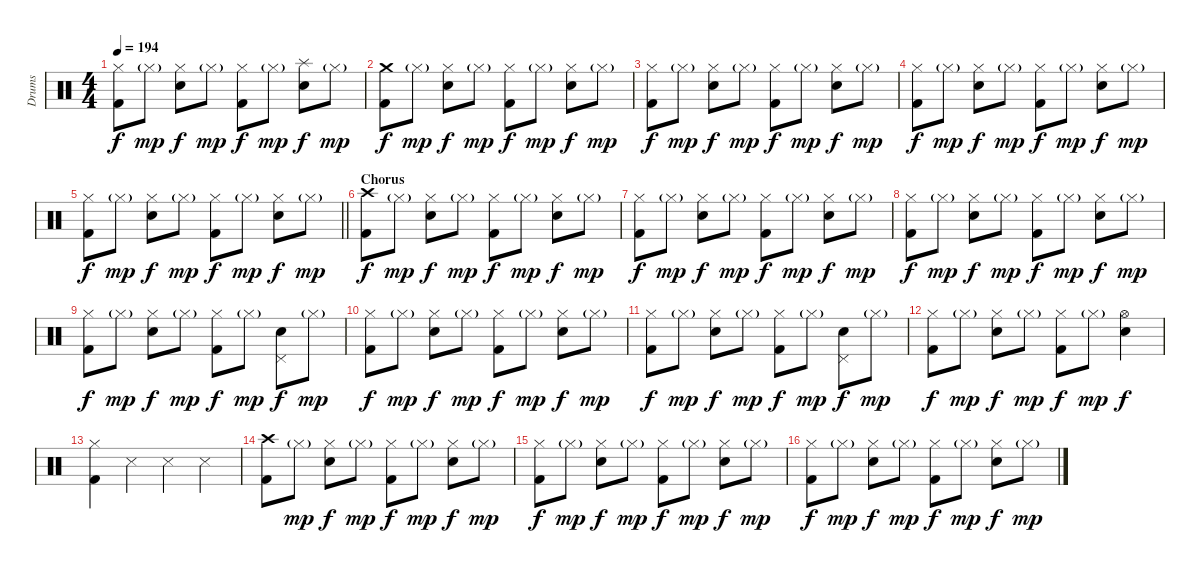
\track ("Drums" "Drums") {instrument percussion}
\staff {score}
\articulation defaults
\ts (4 4)
\tempo 194
\clef neutral
\ks c
("Hi-Hat (closed)" "Kick (hit) 2").8{dy f} "Hi-Hat (closed)"{g}.8{dy mp} ("Hi-Hat (closed)" "Snare (hit) 2").8{dy f} "Hi-Hat (closed)"{g}.8{dy mp} ("Hi-Hat (closed)" "Kick (hit) 2").8{dy f} "Hi-Hat (closed)"{g}.8{dy mp} ("Splash (hit)" "Snare (hit) 2").8{dy f} "Hi-Hat (closed)"{g}.8{dy mp} |
("Crash medium (hit)" "Kick (hit) 2").8{dy f} "Hi-Hat (closed)"{g}.8{dy mp} ("Hi-Hat (closed)" "Snare (hit) 2").8{dy f} "Hi-Hat (closed)"{g}.8{dy mp} ("Hi-Hat (closed)" "Kick (hit) 2").8{dy f} "Hi-Hat (closed)"{g}.8{dy mp} ("Hi-Hat (closed)" "Snare (hit) 2").8{dy f} "Hi-Hat (closed)"{g}.8{dy mp} |
("Hi-Hat (closed)" "Kick (hit) 2").8{dy f} "Hi-Hat (closed)"{g}.8{dy mp} ("Hi-Hat (closed)" "Snare (hit) 2").8{dy f} "Hi-Hat (closed)"{g}.8{dy mp} ("Hi-Hat (closed)" "Kick (hit) 2").8{dy f} "Hi-Hat (closed)"{g}.8{dy mp} ("Hi-Hat (closed)" "Snare (hit) 2").8{dy f} "Hi-Hat (closed)"{g}.8{dy mp} |
("Hi-Hat (closed)" "Kick (hit) 2").8{dy f} "Hi-Hat (closed)"{g}.8{dy mp} ("Hi-Hat (closed)" "Snare (hit) 2").8{dy f} "Hi-Hat (closed)"{g}.8{dy mp} ("Hi-Hat (closed)" "Kick (hit) 2").8{dy f} "Hi-Hat (closed)"{g}.8{dy mp} ("Hi-Hat (closed)" "Snare (hit) 2").8{dy f} "Hi-Hat (closed)"{g}.8{dy mp} |
\barLineRight lightlight
("Hi-Hat (closed)" "Kick (hit) 2").8{dy f} "Hi-Hat (closed)"{g}.8{dy mp} ("Hi-Hat (closed)" "Snare (hit) 2").8{dy f} "Hi-Hat (closed)"{g}.8{dy mp} ("Hi-Hat (closed)" "Kick (hit) 2").8{dy f} "Hi-Hat (closed)"{g}.8{dy mp} ("Hi-Hat (closed)" "Snare (hit) 2").8{dy f} "Hi-Hat (closed)"{g}.8{dy mp} |
\section ("" "Chorus")
("Crash high (hit)" "Kick (hit) 2").8{dy f} "Hi-Hat (closed)"{g}.8{dy mp} ("Hi-Hat (closed)" "Snare (hit) 2").8{dy f} "Hi-Hat (closed)"{g}.8{dy mp} ("Hi-Hat (closed)" "Kick (hit) 2").8{dy f} "Hi-Hat (closed)"{g}.8{dy mp} ("Hi-Hat (closed)" "Snare (hit) 2").8{dy f} "Hi-Hat (closed)"{g}.8{dy mp} |
("Hi-Hat (closed)" "Kick (hit) 2").8{dy f} "Hi-Hat (closed)"{g}.8{dy mp} ("Hi-Hat (closed)" "Snare (hit) 2").8{dy f} "Hi-Hat (closed)"{g}.8{dy mp} ("Hi-Hat (closed)" "Kick (hit) 2").8{dy f} "Hi-Hat (closed)"{g}.8{dy mp} ("Hi-Hat (closed)" "Snare (hit) 2").8{dy f} "Hi-Hat (closed)"{g}.8{dy mp} |
("Hi-Hat (closed)" "Kick (hit) 2").8{dy f} "Hi-Hat (closed)"{g}.8{dy mp} ("Hi-Hat (closed)" "Snare (hit) 2").8{dy f} "Hi-Hat (closed)"{g}.8{dy mp} ("Hi-Hat (closed)" "Kick (hit) 2").8{dy f} "Hi-Hat (closed)"{g}.8{dy mp} ("Hi-Hat (closed)" "Snare (hit) 2").8{dy f} "Hi-Hat (closed)"{g}.8{dy mp} |
("Hi-Hat (closed)" "Kick (hit) 2").8{dy f} "Hi-Hat (closed)"{g}.8{dy mp} ("Hi-Hat (closed)" "Snare (hit) 2").8{dy f} "Hi-Hat (closed)"{g}.8{dy mp} ("Hi-Hat (closed)" "Kick (hit) 2").8{dy f} "Hi-Hat (closed)"{g}.8{dy mp} ("Pedal Hi-Hat (hit)" "Snare (hit) 2").8{dy f} "Hi-Hat (closed)"{g}.8{dy mp} |
("Hi-Hat (closed)" "Kick (hit) 2").8{dy f} "Hi-Hat (closed)"{g}.8{dy mp} ("Hi-Hat (closed)" "Snare (hit) 2").8{dy f} "Hi-Hat (closed)"{g}.8{dy mp} ("Hi-Hat (closed)" "Kick (hit) 2").8{dy f} "Hi-Hat (closed)"{g}.8{dy mp} ("Hi-Hat (closed)" "Snare (hit) 2").8{dy f} "Hi-Hat (closed)"{g}.8{dy mp} |
("Hi-Hat (closed)" "Kick (hit) 2").8{dy f} "Hi-Hat (closed)"{g}.8{dy mp} ("Hi-Hat (closed)" "Snare (hit) 2").8{dy f} "Hi-Hat (closed)"{g}.8{dy mp} ("Hi-Hat (closed)" "Kick (hit) 2").8{dy f} "Hi-Hat (closed)"{g}.8{dy mp} ("Pedal Hi-Hat (hit)" "Snare (hit) 2").8{dy f} "Hi-Hat (closed)"{g}.8{dy mp} |
("Hi-Hat (closed)" "Kick (hit) 2").8{dy f} "Hi-Hat (closed)"{g}.8{dy mp} ("Hi-Hat (closed)" "Snare (hit) 2").8{dy f} "Hi-Hat (closed)"{g}.8{dy mp} ("Hi-Hat (closed)" "Kick (hit) 2").8{dy f} "Hi-Hat (closed)"{g}.8{dy mp} ("Hi-Hat (open)" "Snare (hit) 2").4{dy f} |
("Hi-Hat (closed)" "Kick (hit) 2").4 "Snare (side stick) 3".4 "Snare (side stick) 3".4 "Snare (side stick) 3".4 |
("Crash high (hit)" "Kick (hit) 2").8 "Hi-Hat (closed)"{g}.8{dy mp} ("Hi-Hat (closed)" "Snare (hit) 2").8{dy f} "Hi-Hat (closed)"{g}.8{dy mp} ("Hi-Hat (closed)" "Kick (hit) 2").8{dy f} "Hi-Hat (closed)"{g}.8{dy mp} ("Hi-Hat (closed)" "Snare (hit) 2").8{dy f} "Hi-Hat (closed)"{g}.8{dy mp} |
("Hi-Hat (closed)" "Kick (hit) 2").8{dy f} "Hi-Hat (closed)"{g}.8{dy mp} ("Hi-Hat (closed)" "Snare (hit) 2").8{dy f} "Hi-Hat (closed)"{g}.8{dy mp} ("Hi-Hat (closed)" "Kick (hit) 2").8{dy f} "Hi-Hat (closed)"{g}.8{dy mp} ("Hi-Hat (closed)" "Snare (hit) 2").8{dy f} "Hi-Hat (closed)"{g}.8{dy mp} |
("Hi-Hat (closed)" "Kick (hit) 2").8{dy f} "Hi-Hat (closed)"{g}.8{dy mp} ("Hi-Hat (closed)" "Snare (hit) 2").8{dy f} "Hi-Hat (closed)"{g}.8{dy mp} ("Hi-Hat (closed)" "Kick (hit) 2").8{dy f} "Hi-Hat (closed)"{g}.8{dy mp} ("Hi-Hat (closed)" "Snare (hit) 2").8{dy f} "Hi-Hat (closed)"{g}.8{dy mp}
